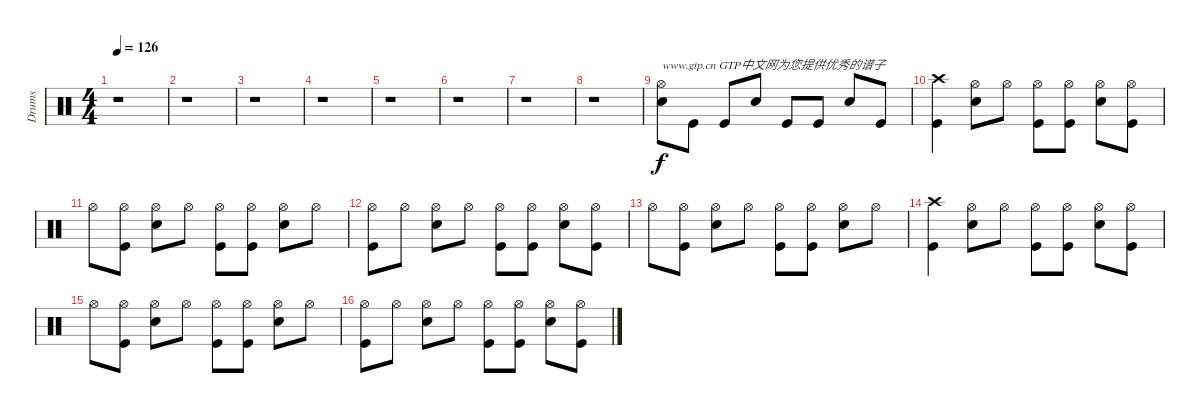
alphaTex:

\track ("Drums" "Drums") {instrument percussion}
\staff {score}
\articulation defaults
\ts (4 4)
\tempo 126
\clef neutral
\ks c
r.1{dy f} |
r.1 |
r.1 |
r.1 |
r.1 |
r.1 |
r.1 |
r.1 |
("Snare (hit) 2" "Hi-Hat (open)").8{txt "www.gtp.cn GTP中文网为您提供优秀的谱子"} "Kick (hit)".8 "Kick (hit)".8 "Snare (hit) 2".8 "Kick (hit)".8 "Kick (hit)".8 "Snare (hit) 2".8 "Kick (hit)".8 |
("Crash high (hit)" "Kick (hit)").4 ("Hi-Hat (open)" "Snare (hit) 2").8 "Hi-Hat (open)".8 ("Hi-Hat (open)" "Kick (hit)").8 ("Hi-Hat (open)" "Kick (hit)").8 ("Hi-Hat (open)" "Snare (hit) 2").8 ("Hi-Hat (open)" "Kick (hit)").8 |
"Hi-Hat (open)".8 ("Hi-Hat (open)" "Kick (hit)").8 ("Snare (hit) 2" "Hi-Hat (open)").8 "Hi-Hat (open)".8 ("Hi-Hat (open)" "Kick (hit)").8 ("Hi-Hat (open)" "Kick (hit)").8 ("Hi-Hat (open)" "Snare (hit) 2").8 "Hi-Hat (open)".8 |
("Hi-Hat (open)" "Kick (hit)").8 "Hi-Hat (open)".8 ("Hi-Hat (open)" "Snare (hit) 2").8 "Hi-Hat (open)".8 ("Hi-Hat (open)" "Kick (hit)").8 ("Hi-Hat (open)" "Kick (hit)").8 ("Hi-Hat (open)" "Snare (hit) 2").8 ("Hi-Hat (open)" "Kick (hit)").8 |
"Hi-Hat (open)".8 ("Hi-Hat (open)" "Kick (hit)").8 ("Snare (hit) 2" "Hi-Hat (open)").8 "Hi-Hat (open)".8 ("Hi-Hat (open)" "Kick (hit)").8 ("Hi-Hat (open)" "Kick (hit)").8 ("Hi-Hat (open)" "Snare (hit) 2").8 "Hi-Hat (open)".8 |
("Crash high (hit)" "Kick (hit)").4 ("Hi-Hat (open)" "Snare (hit) 2").8 "Hi-Hat (open)".8 ("Hi-Hat (open)" "Kick (hit)").8 ("Hi-Hat (open)" "Kick (hit)").8 ("Hi-Hat (open)" "Snare (hit) 2").8 ("Hi-Hat (open)" "Kick (hit)").8 |
"Hi-Hat (open)".8 ("Hi-Hat (open)" "Kick (hit)").8 ("Snare (hit) 2" "Hi-Hat (open)").8 "Hi-Hat (open)".8 ("Hi-Hat (open)" "Kick (hit)").8 ("Hi-Hat (open)" "Kick (hit)").8 ("Hi-Hat (open)" "Snare (hit) 2").8 "Hi-Hat (open)".8 |
("Hi-Hat (open)" "Kick (hit)").8 "Hi-Hat (open)".8 ("Hi-Hat (open)" "Snare (hit) 2").8 "Hi-Hat (open)".8 ("Hi-Hat (open)" "Kick (hit)").8 ("Hi-Hat (open)" "Kick (hit)").8 ("Hi-Hat (open)" "Snare (hit) 2").8 ("Hi-Hat (open)" "Kick (hit)").8
